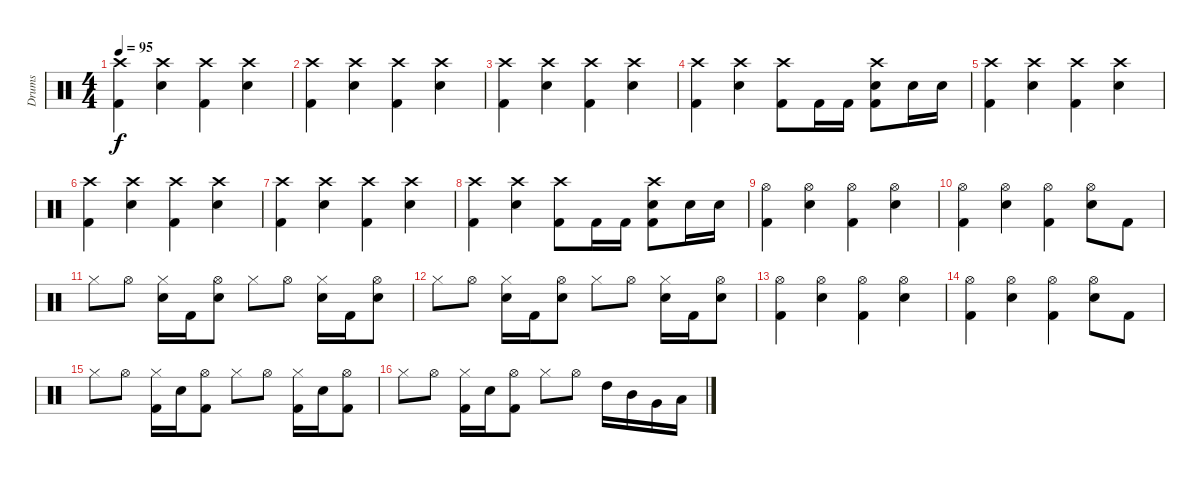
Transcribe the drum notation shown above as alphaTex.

\track ("Drums" "Drums") {instrument percussion}
\staff {score}
\articulation defaults
\ts (4 4)
\tempo 95
\clef neutral
\ks c
("Crash high (hit)" "Kick (hit) 2").4{dy f} ("Crash high (hit)" "Electric Snare (hit)").4 ("Crash high (hit)" "Kick (hit) 2").4 ("Crash high (hit)" "Electric Snare (hit)").4 |
("Crash high (hit)" "Kick (hit) 2").4 ("Crash high (hit)" "Electric Snare (hit)").4 ("Crash high (hit)" "Kick (hit) 2").4 ("Crash high (hit)" "Electric Snare (hit)").4 |
("Crash high (hit)" "Kick (hit) 2").4 ("Crash high (hit)" "Electric Snare (hit)").4 ("Crash high (hit)" "Kick (hit) 2").4 ("Crash high (hit)" "Electric Snare (hit)").4 |
("Crash high (hit)" "Kick (hit) 2").4 ("Crash high (hit)" "Electric Snare (hit)").4 ("Crash high (hit)" "Kick (hit) 2").8 "Kick (hit) 2".16 "Kick (hit) 2".16 ("Crash high (hit)" "Electric Snare (hit)" "Kick (hit) 2").8 "Electric Snare (hit)".16 "Electric Snare (hit)".16 |
("Crash high (hit)" "Kick (hit) 2").4 ("Crash high (hit)" "Electric Snare (hit)").4 ("Crash high (hit)" "Kick (hit) 2").4 ("Crash high (hit)" "Electric Snare (hit)").4 |
("Crash high (hit)" "Kick (hit) 2").4 ("Crash high (hit)" "Electric Snare (hit)").4 ("Crash high (hit)" "Kick (hit) 2").4 ("Crash high (hit)" "Electric Snare (hit)").4 |
("Crash high (hit)" "Kick (hit) 2").4 ("Crash high (hit)" "Electric Snare (hit)").4 ("Crash high (hit)" "Kick (hit) 2").4 ("Crash high (hit)" "Electric Snare (hit)").4 |
("Crash high (hit)" "Kick (hit) 2").4 ("Crash high (hit)" "Electric Snare (hit)").4 ("Crash high (hit)" "Kick (hit) 2").8 "Kick (hit) 2".16 "Kick (hit) 2".16 ("Crash high (hit)" "Electric Snare (hit)" "Kick (hit) 2").8 "Electric Snare (hit)".16 "Electric Snare (hit)".16 |
("Hi-Hat (open)" "Kick (hit) 2").4 ("Hi-Hat (open)" "Electric Snare (hit)").4 ("Hi-Hat (open)" "Kick (hit) 2").4 ("Hi-Hat (open)" "Electric Snare (hit)").4 |
("Hi-Hat (open)" "Kick (hit) 2").4 ("Hi-Hat (open)" "Electric Snare (hit)").4 ("Hi-Hat (open)" "Kick (hit) 2").4 ("Hi-Hat (open)" "Electric Snare (hit)").8 "Kick (hit) 2".8 |
"Hi-Hat (closed)".8 "Hi-Hat (open)".8 ("Hi-Hat (closed)" "Electric Snare (hit)").16 "Kick (hit) 2".16 ("Hi-Hat (open)" "Electric Snare (hit)").8 "Hi-Hat (closed)".8 "Hi-Hat (open)".8 ("Hi-Hat (closed)" "Electric Snare (hit)").16 "Kick (hit) 2".16 ("Hi-Hat (open)" "Electric Snare (hit)").8 |
"Hi-Hat (closed)".8 "Hi-Hat (open)".8 ("Hi-Hat (closed)" "Electric Snare (hit)").16 "Kick (hit) 2".16 ("Hi-Hat (open)" "Electric Snare (hit)").8 "Hi-Hat (closed)".8 "Hi-Hat (open)".8 ("Hi-Hat (closed)" "Electric Snare (hit)").16 "Kick (hit) 2".16 ("Hi-Hat (open)" "Electric Snare (hit)").8 |
("Hi-Hat (open)" "Kick (hit) 2").4 ("Hi-Hat (open)" "Electric Snare (hit)").4 ("Hi-Hat (open)" "Kick (hit) 2").4 ("Hi-Hat (open)" "Electric Snare (hit)").4 |
("Hi-Hat (open)" "Kick (hit) 2").4 ("Hi-Hat (open)" "Electric Snare (hit)").4 ("Hi-Hat (open)" "Kick (hit) 2").4 ("Hi-Hat (open)" "Electric Snare (hit)").8 "Kick (hit) 2".8 |
"Hi-Hat (closed)".8 "Hi-Hat (open)".8 ("Hi-Hat (closed)" "Kick (hit) 2").16 "Electric Snare (hit)".16 ("Hi-Hat (open)" "Kick (hit) 2").8 "Hi-Hat (closed)".8 "Hi-Hat (open)".8 ("Hi-Hat (closed)" "Kick (hit) 2").16 "Electric Snare (hit)".16 ("Hi-Hat (open)" "Kick (hit) 2").8 |
"Hi-Hat (closed)".8 "Hi-Hat (open)".8 ("Hi-Hat (closed)" "Kick (hit) 2").16 "Electric Snare (hit)".16 ("Hi-Hat (open)" "Kick (hit) 2").8 "Hi-Hat (closed)".8 "Hi-Hat (open)".8 "High Tom (hit)".16 "Mid Tom (hit)".16 "Very Low Tom (hit)".16 "Low Floor Tom (hit)".16
